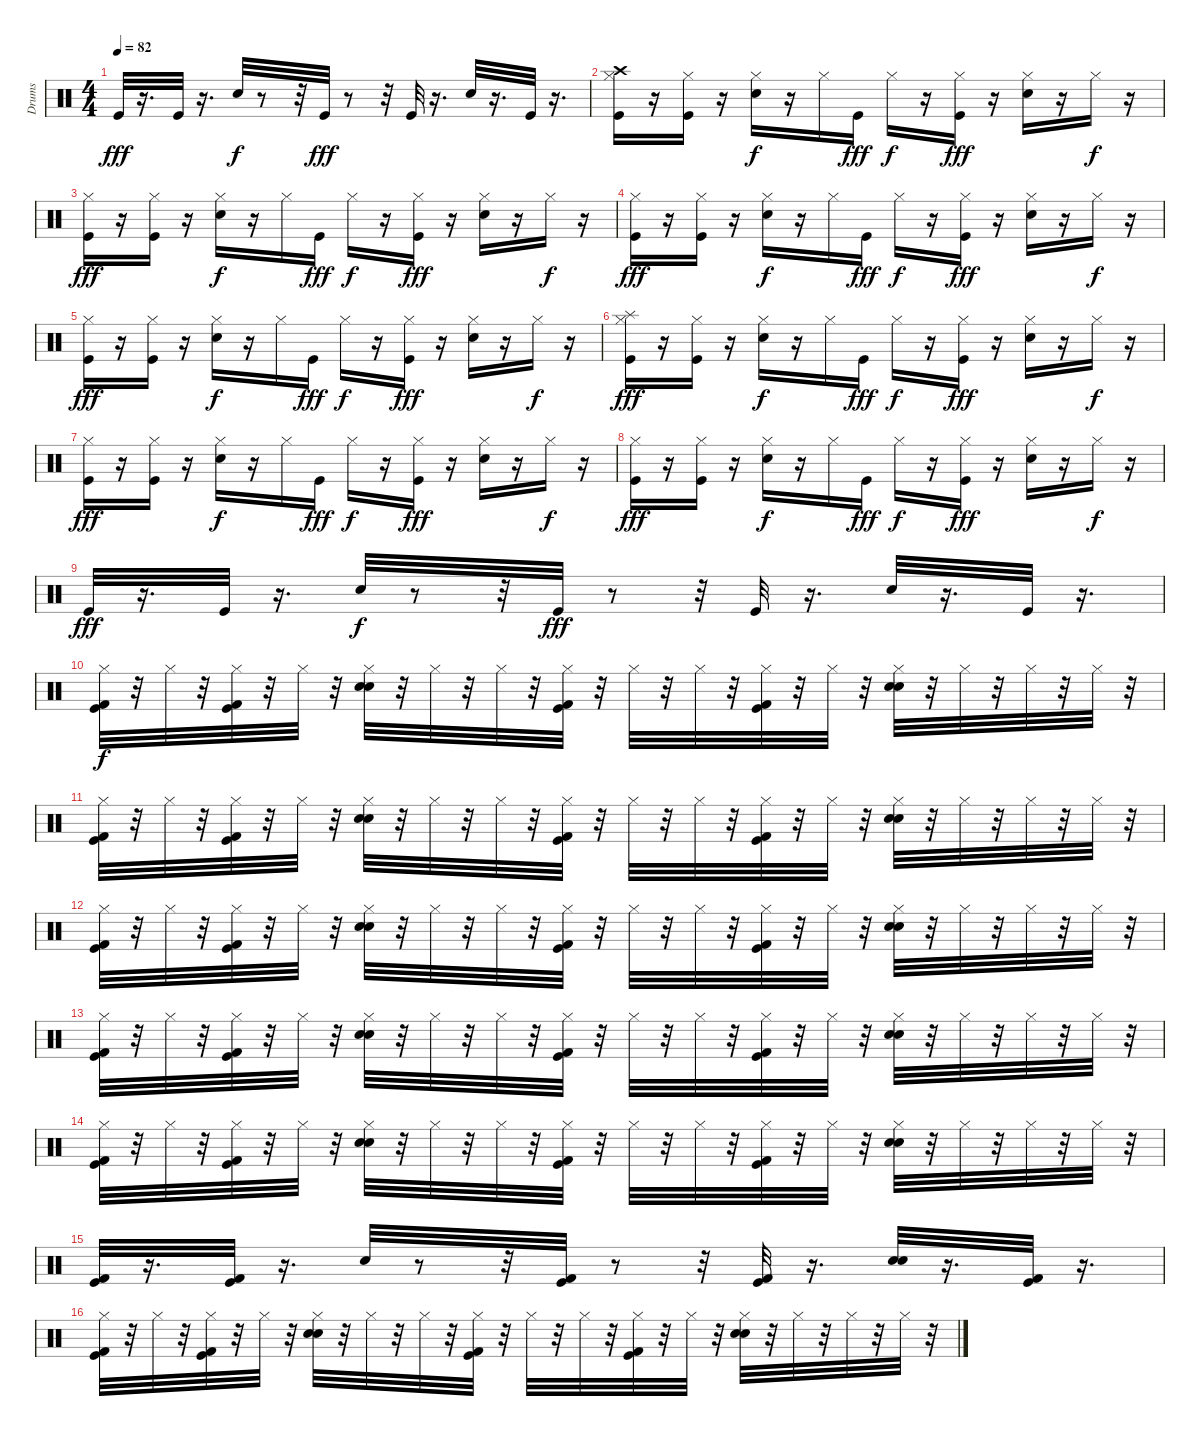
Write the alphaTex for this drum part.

\track ("Drums" "Drums") {instrument percussion}
\staff {score}
\articulation defaults
\ts (4 4)
\tempo 82
\clef neutral
\ks c "Kick (hit)".32{dy fff}
r.16{d} "Kick (hit)".32 r.16{d} "Hand Clap (hit)".32{dy f} r.8 r.32 "Kick (hit)".32{dy fff} r.8 r.32 "Kick (hit)".32 r.16{d} "Electric Snare (hit)".32 r.16{d} "Kick (hit)".32 r.16{d} |
("Hi-Hat (closed)" "Crash high (hit)" "Kick (hit)").16 r.16 ("Hi-Hat (closed)" "Kick (hit)").16 r.16 ("Hi-Hat (closed)" "Electric Snare (hit)").16{dy f} r.16 "Hi-Hat (closed)".16 "Kick (hit)".16{dy fff} "Hi-Hat (closed)".16{dy f} r.16 ("Hi-Hat (closed)" "Kick (hit)").16{dy fff} r.16 ("Hi-Hat (closed)" "Electric Snare (hit)").16 r.16 "Hi-Hat (closed)".16{dy f} r.16 |
("Hi-Hat (closed)" "Kick (hit)").16{dy fff} r.16 ("Hi-Hat (closed)" "Kick (hit)").16 r.16 ("Hi-Hat (closed)" "Electric Snare (hit)").16{dy f} r.16 "Hi-Hat (closed)".16 "Kick (hit)".16{dy fff} "Hi-Hat (closed)".16{dy f} r.16 ("Hi-Hat (closed)" "Kick (hit)").16{dy fff} r.16 ("Hi-Hat (closed)" "Electric Snare (hit)").16 r.16 "Hi-Hat (closed)".16{dy f} r.16 |
("Hi-Hat (closed)" "Kick (hit)").16{dy fff} r.16 ("Hi-Hat (closed)" "Kick (hit)").16 r.16 ("Hi-Hat (closed)" "Electric Snare (hit)").16{dy f} r.16 "Hi-Hat (closed)".16 "Kick (hit)".16{dy fff} "Hi-Hat (closed)".16{dy f} r.16 ("Hi-Hat (closed)" "Kick (hit)").16{dy fff} r.16 ("Hi-Hat (closed)" "Electric Snare (hit)").16 r.16 "Hi-Hat (closed)".16{dy f} r.16 |
("Hi-Hat (closed)" "Kick (hit)").16{dy fff} r.16 ("Hi-Hat (closed)" "Kick (hit)").16 r.16 ("Hi-Hat (closed)" "Electric Snare (hit)").16{dy f} r.16 "Hi-Hat (closed)".16 "Kick (hit)".16{dy fff} "Hi-Hat (closed)".16{dy f} r.16 ("Hi-Hat (closed)" "Kick (hit)").16{dy fff} r.16 ("Hi-Hat (closed)" "Electric Snare (hit)").16 r.16 "Hi-Hat (closed)".16{dy f} r.16 |
("Hi-Hat (closed)" "Splash (hit)" "Kick (hit)").16{dy fff} r.16 ("Hi-Hat (closed)" "Kick (hit)").16 r.16 ("Hi-Hat (closed)" "Electric Snare (hit)").16{dy f} r.16 "Hi-Hat (closed)".16 "Kick (hit)".16{dy fff} "Hi-Hat (closed)".16{dy f} r.16 ("Hi-Hat (closed)" "Kick (hit)").16{dy fff} r.16 ("Hi-Hat (closed)" "Electric Snare (hit)").16 r.16 "Hi-Hat (closed)".16{dy f} r.16 |
("Hi-Hat (closed)" "Kick (hit)").16{dy fff} r.16 ("Hi-Hat (closed)" "Kick (hit)").16 r.16 ("Hi-Hat (closed)" "Electric Snare (hit)").16{dy f} r.16 "Hi-Hat (closed)".16 "Kick (hit)".16{dy fff} "Hi-Hat (closed)".16{dy f} r.16 ("Hi-Hat (closed)" "Kick (hit)").16{dy fff} r.16 ("Hi-Hat (closed)" "Electric Snare (hit)").16 r.16 "Hi-Hat (closed)".16{dy f} r.16 |
("Hi-Hat (closed)" "Kick (hit)").16{dy fff} r.16 ("Hi-Hat (closed)" "Kick (hit)").16 r.16 ("Hi-Hat (closed)" "Electric Snare (hit)").16{dy f} r.16 "Hi-Hat (closed)".16 "Kick (hit)".16{dy fff} "Hi-Hat (closed)".16{dy f} r.16 ("Hi-Hat (closed)" "Kick (hit)").16{dy fff} r.16 ("Hi-Hat (closed)" "Electric Snare (hit)").16 r.16 "Hi-Hat (closed)".16{dy f} r.16 |
"Kick (hit)".32{dy fff} r.16{d} "Kick (hit)".32 r.16{d} "Hand Clap (hit)".32{dy f} r.8 r.32 "Kick (hit)".32{dy fff} r.8 r.32 "Kick (hit)".32 r.16{d} "Electric Snare (hit)".32 r.16{d} "Kick (hit)".32 r.16{d} |
("Hi-Hat (closed)" "Kick (hit)" "Kick (hit) 2").32{dy f} r.32 "Hi-Hat (closed)".32 r.32 ("Hi-Hat (closed)" "Kick (hit) 2" "Kick (hit)").32 r.32 "Hi-Hat (closed)".32 r.32 ("Hi-Hat (closed)" "Snare (hit) 2" "Electric Snare (hit)").32 r.32 "Hi-Hat (closed)".32 r.32 "Hi-Hat (closed)".32 r.32 ("Hi-Hat (closed)" "Kick (hit) 2" "Kick (hit)").32 r.32 "Hi-Hat (closed)".32 r.32 "Hi-Hat (closed)".32 r.32 ("Hi-Hat (closed)" "Kick (hit) 2" "Kick (hit)").32 r.32 "Hi-Hat (closed)".32 r.32 ("Hi-Hat (closed)" "Electric Snare (hit)" "Snare (hit) 2").32 r.32 "Hi-Hat (closed)".32 r.32 "Hi-Hat (closed)".32 r.32 "Hi-Hat (closed)".32 r.32 |
("Hi-Hat (closed)" "Kick (hit)" "Kick (hit) 2").32 r.32 "Hi-Hat (closed)".32 r.32 ("Hi-Hat (closed)" "Kick (hit) 2" "Kick (hit)").32 r.32 "Hi-Hat (closed)".32 r.32 ("Hi-Hat (closed)" "Snare (hit) 2" "Electric Snare (hit)").32 r.32 "Hi-Hat (closed)".32 r.32 "Hi-Hat (closed)".32 r.32 ("Hi-Hat (closed)" "Kick (hit) 2" "Kick (hit)").32 r.32 "Hi-Hat (closed)".32 r.32 "Hi-Hat (closed)".32 r.32 ("Hi-Hat (closed)" "Kick (hit) 2" "Kick (hit)").32 r.32 "Hi-Hat (closed)".32 r.32 ("Hi-Hat (closed)" "Electric Snare (hit)" "Snare (hit) 2").32 r.32 "Hi-Hat (closed)".32 r.32 "Hi-Hat (closed)".32 r.32 "Hi-Hat (closed)".32 r.32 |
("Hi-Hat (closed)" "Kick (hit)" "Kick (hit) 2").32 r.32 "Hi-Hat (closed)".32 r.32 ("Hi-Hat (closed)" "Kick (hit) 2" "Kick (hit)").32 r.32 "Hi-Hat (closed)".32 r.32 ("Hi-Hat (closed)" "Snare (hit) 2" "Electric Snare (hit)").32 r.32 "Hi-Hat (closed)".32 r.32 "Hi-Hat (closed)".32 r.32 ("Hi-Hat (closed)" "Kick (hit) 2" "Kick (hit)").32 r.32 "Hi-Hat (closed)".32 r.32 "Hi-Hat (closed)".32 r.32 ("Hi-Hat (closed)" "Kick (hit) 2" "Kick (hit)").32 r.32 "Hi-Hat (closed)".32 r.32 ("Hi-Hat (closed)" "Electric Snare (hit)" "Snare (hit) 2").32 r.32 "Hi-Hat (closed)".32 r.32 "Hi-Hat (closed)".32 r.32 "Hi-Hat (closed)".32 r.32 |
("Hi-Hat (closed)" "Kick (hit)" "Kick (hit) 2").32 r.32 "Hi-Hat (closed)".32 r.32 ("Hi-Hat (closed)" "Kick (hit) 2" "Kick (hit)").32 r.32 "Hi-Hat (closed)".32 r.32 ("Hi-Hat (closed)" "Snare (hit) 2" "Electric Snare (hit)").32 r.32 "Hi-Hat (closed)".32 r.32 "Hi-Hat (closed)".32 r.32 ("Hi-Hat (closed)" "Kick (hit) 2" "Kick (hit)").32 r.32 "Hi-Hat (closed)".32 r.32 "Hi-Hat (closed)".32 r.32 ("Hi-Hat (closed)" "Kick (hit) 2" "Kick (hit)").32 r.32 "Hi-Hat (closed)".32 r.32 ("Hi-Hat (closed)" "Electric Snare (hit)" "Snare (hit) 2").32 r.32 "Hi-Hat (closed)".32 r.32 "Hi-Hat (closed)".32 r.32 "Hi-Hat (closed)".32 r.32 |
("Hi-Hat (closed)" "Kick (hit)" "Kick (hit) 2").32 r.32 "Hi-Hat (closed)".32 r.32 ("Hi-Hat (closed)" "Kick (hit) 2" "Kick (hit)").32 r.32 "Hi-Hat (closed)".32 r.32 ("Hi-Hat (closed)" "Snare (hit) 2" "Electric Snare (hit)").32 r.32 "Hi-Hat (closed)".32 r.32 "Hi-Hat (closed)".32 r.32 ("Hi-Hat (closed)" "Kick (hit) 2" "Kick (hit)").32 r.32 "Hi-Hat (closed)".32 r.32 "Hi-Hat (closed)".32 r.32 ("Hi-Hat (closed)" "Kick (hit) 2" "Kick (hit)").32 r.32 "Hi-Hat (closed)".32 r.32 ("Hi-Hat (closed)" "Electric Snare (hit)" "Snare (hit) 2").32 r.32 "Hi-Hat (closed)".32 r.32 "Hi-Hat (closed)".32 r.32 "Hi-Hat (closed)".32 r.32 |
("Kick (hit)" "Kick (hit) 2").32 r.16{d} ("Kick (hit)" "Kick (hit) 2").32 r.16{d} "Hand Clap (hit)".32 r.8 r.32 ("Kick (hit)" "Kick (hit) 2").32 r.8 r.32 ("Kick (hit)" "Kick (hit) 2").32 r.16{d} ("Snare (hit) 2" "Electric Snare (hit)").32 r.16{d} ("Kick (hit)" "Kick (hit) 2").32 r.16{d} |
("Hi-Hat (closed)" "Kick (hit)" "Kick (hit) 2").32 r.32 "Hi-Hat (closed)".32 r.32 ("Hi-Hat (closed)" "Kick (hit) 2" "Kick (hit)").32 r.32 "Hi-Hat (closed)".32 r.32 ("Hi-Hat (closed)" "Snare (hit) 2" "Electric Snare (hit)").32 r.32 "Hi-Hat (closed)".32 r.32 "Hi-Hat (closed)".32 r.32 ("Hi-Hat (closed)" "Kick (hit) 2" "Kick (hit)").32 r.32 "Hi-Hat (closed)".32 r.32 "Hi-Hat (closed)".32 r.32 ("Hi-Hat (closed)" "Kick (hit) 2" "Kick (hit)").32 r.32 "Hi-Hat (closed)".32 r.32 ("Hi-Hat (closed)" "Electric Snare (hit)" "Snare (hit) 2").32 r.32 "Hi-Hat (closed)".32 r.32 "Hi-Hat (closed)".32 r.32 "Hi-Hat (closed)".32 r.32
